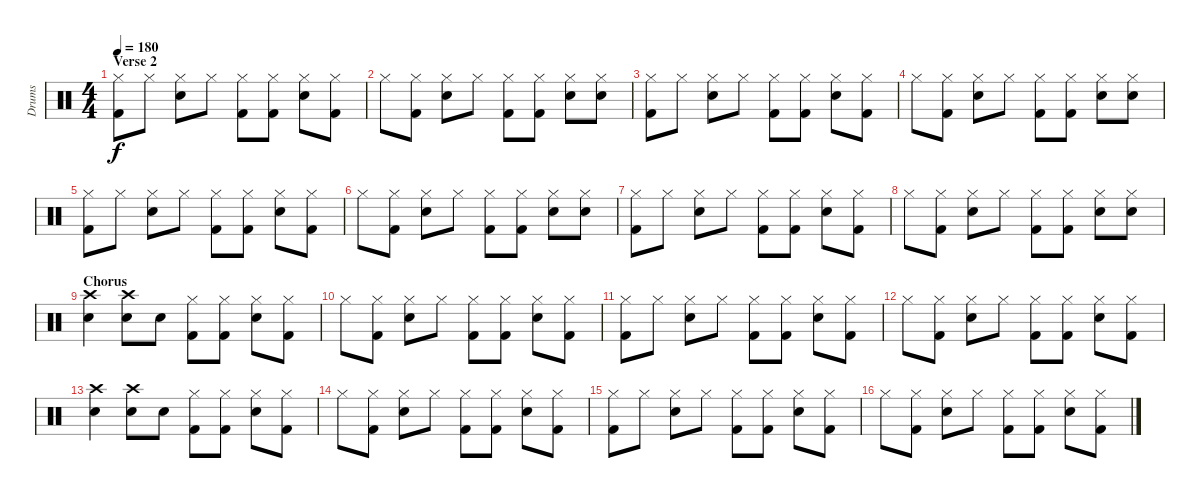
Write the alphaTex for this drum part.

\track ("Drums" "Drums") {instrument percussion}
\staff {score}
\articulation defaults
\ts (4 4)
\section ("" "Verse 2")
\tempo 180
\clef neutral
\ks c
("Hi-Hat (closed)" "Kick (hit) 2").8{dy f} "Hi-Hat (closed)".8 ("Hi-Hat (closed)" "Snare (hit) 2").8 "Hi-Hat (closed)".8 ("Hi-Hat (closed)" "Kick (hit) 2").8 ("Hi-Hat (closed)" "Kick (hit) 2").8 ("Hi-Hat (closed)" "Snare (hit) 2").8 ("Hi-Hat (closed)" "Kick (hit) 2").8 |
"Hi-Hat (closed)".8 ("Hi-Hat (closed)" "Kick (hit) 2").8 ("Hi-Hat (closed)" "Snare (hit) 2").8 "Hi-Hat (closed)".8 ("Hi-Hat (closed)" "Kick (hit) 2").8 ("Hi-Hat (closed)" "Kick (hit) 2").8 ("Hi-Hat (closed)" "Snare (hit) 2").8 ("Hi-Hat (closed)" "Snare (hit) 2").8 |
("Hi-Hat (closed)" "Kick (hit) 2").8 "Hi-Hat (closed)".8 ("Hi-Hat (closed)" "Snare (hit) 2").8 "Hi-Hat (closed)".8 ("Hi-Hat (closed)" "Kick (hit) 2").8 ("Hi-Hat (closed)" "Kick (hit) 2").8 ("Hi-Hat (closed)" "Snare (hit) 2").8 ("Hi-Hat (closed)" "Kick (hit) 2").8 |
"Hi-Hat (closed)".8 ("Hi-Hat (closed)" "Kick (hit) 2").8 ("Hi-Hat (closed)" "Snare (hit) 2").8 "Hi-Hat (closed)".8 ("Hi-Hat (closed)" "Kick (hit) 2").8 ("Hi-Hat (closed)" "Kick (hit) 2").8 ("Hi-Hat (closed)" "Snare (hit) 2").8 ("Hi-Hat (closed)" "Snare (hit) 2").8 |
("Hi-Hat (closed)" "Kick (hit) 2").8 "Hi-Hat (closed)".8 ("Hi-Hat (closed)" "Snare (hit) 2").8 "Hi-Hat (closed)".8 ("Hi-Hat (closed)" "Kick (hit) 2").8 ("Hi-Hat (closed)" "Kick (hit) 2").8 ("Hi-Hat (closed)" "Snare (hit) 2").8 ("Hi-Hat (closed)" "Kick (hit) 2").8 |
"Hi-Hat (closed)".8 ("Hi-Hat (closed)" "Kick (hit) 2").8 ("Hi-Hat (closed)" "Snare (hit) 2").8 "Hi-Hat (closed)".8 ("Hi-Hat (closed)" "Kick (hit) 2").8 ("Hi-Hat (closed)" "Kick (hit) 2").8 ("Hi-Hat (closed)" "Snare (hit) 2").8 ("Hi-Hat (closed)" "Snare (hit) 2").8 |
("Hi-Hat (closed)" "Kick (hit) 2").8 "Hi-Hat (closed)".8 ("Hi-Hat (closed)" "Snare (hit) 2").8 "Hi-Hat (closed)".8 ("Hi-Hat (closed)" "Kick (hit) 2").8 ("Hi-Hat (closed)" "Kick (hit) 2").8 ("Hi-Hat (closed)" "Snare (hit) 2").8 ("Hi-Hat (closed)" "Kick (hit) 2").8 |
"Hi-Hat (closed)".8 ("Hi-Hat (closed)" "Kick (hit) 2").8 ("Hi-Hat (closed)" "Snare (hit) 2").8 "Hi-Hat (closed)".8 ("Hi-Hat (closed)" "Kick (hit) 2").8 ("Hi-Hat (closed)" "Kick (hit) 2").8 ("Hi-Hat (closed)" "Snare (hit) 2").8 ("Hi-Hat (closed)" "Snare (hit) 2").8 |
\section ("" "Chorus")
("Electric Snare (hit)" "Crash high (hit)").4 ("Electric Snare (hit)" "Crash high (hit)").8 "Snare (hit) 2".8 ("Hi-Hat (closed)" "Kick (hit) 2").8 ("Hi-Hat (closed)" "Kick (hit) 2").8 ("Hi-Hat (closed)" "Snare (hit) 2").8 ("Hi-Hat (closed)" "Kick (hit) 2").8 |
"Hi-Hat (closed)".8 ("Hi-Hat (closed)" "Kick (hit) 2").8 ("Hi-Hat (closed)" "Snare (hit) 2").8 "Hi-Hat (closed)".8 ("Hi-Hat (closed)" "Kick (hit) 2").8 ("Hi-Hat (closed)" "Kick (hit) 2").8 ("Hi-Hat (closed)" "Snare (hit) 2").8 ("Hi-Hat (closed)" "Kick (hit) 2").8 |
("Hi-Hat (closed)" "Kick (hit) 2").8 "Hi-Hat (closed)".8 ("Hi-Hat (closed)" "Snare (hit) 2").8 "Hi-Hat (closed)".8 ("Hi-Hat (closed)" "Kick (hit) 2").8 ("Hi-Hat (closed)" "Kick (hit) 2").8 ("Hi-Hat (closed)" "Snare (hit) 2").8 ("Hi-Hat (closed)" "Kick (hit) 2").8 |
"Hi-Hat (closed)".8 ("Hi-Hat (closed)" "Kick (hit) 2").8 ("Hi-Hat (closed)" "Snare (hit) 2").8 "Hi-Hat (closed)".8 ("Hi-Hat (closed)" "Kick (hit) 2").8 ("Hi-Hat (closed)" "Kick (hit) 2").8 ("Hi-Hat (closed)" "Snare (hit) 2").8 ("Hi-Hat (closed)" "Kick (hit) 2").8 |
("Electric Snare (hit)" "Crash high (hit)").4 ("Electric Snare (hit)" "Crash high (hit)").8 "Snare (hit) 2".8 ("Hi-Hat (closed)" "Kick (hit) 2").8 ("Hi-Hat (closed)" "Kick (hit) 2").8 ("Hi-Hat (closed)" "Snare (hit) 2").8 ("Hi-Hat (closed)" "Kick (hit) 2").8 |
"Hi-Hat (closed)".8 ("Hi-Hat (closed)" "Kick (hit) 2").8 ("Hi-Hat (closed)" "Snare (hit) 2").8 "Hi-Hat (closed)".8 ("Hi-Hat (closed)" "Kick (hit) 2").8 ("Hi-Hat (closed)" "Kick (hit) 2").8 ("Hi-Hat (closed)" "Snare (hit) 2").8 ("Hi-Hat (closed)" "Kick (hit) 2").8 |
("Hi-Hat (closed)" "Kick (hit) 2").8 "Hi-Hat (closed)".8 ("Hi-Hat (closed)" "Snare (hit) 2").8 "Hi-Hat (closed)".8 ("Hi-Hat (closed)" "Kick (hit) 2").8 ("Hi-Hat (closed)" "Kick (hit) 2").8 ("Hi-Hat (closed)" "Snare (hit) 2").8 ("Hi-Hat (closed)" "Kick (hit) 2").8 |
"Hi-Hat (closed)".8 ("Hi-Hat (closed)" "Kick (hit) 2").8 ("Hi-Hat (closed)" "Snare (hit) 2").8 "Hi-Hat (closed)".8 ("Hi-Hat (closed)" "Kick (hit) 2").8 ("Hi-Hat (closed)" "Kick (hit) 2").8 ("Hi-Hat (closed)" "Snare (hit) 2").8 ("Hi-Hat (closed)" "Kick (hit) 2").8
